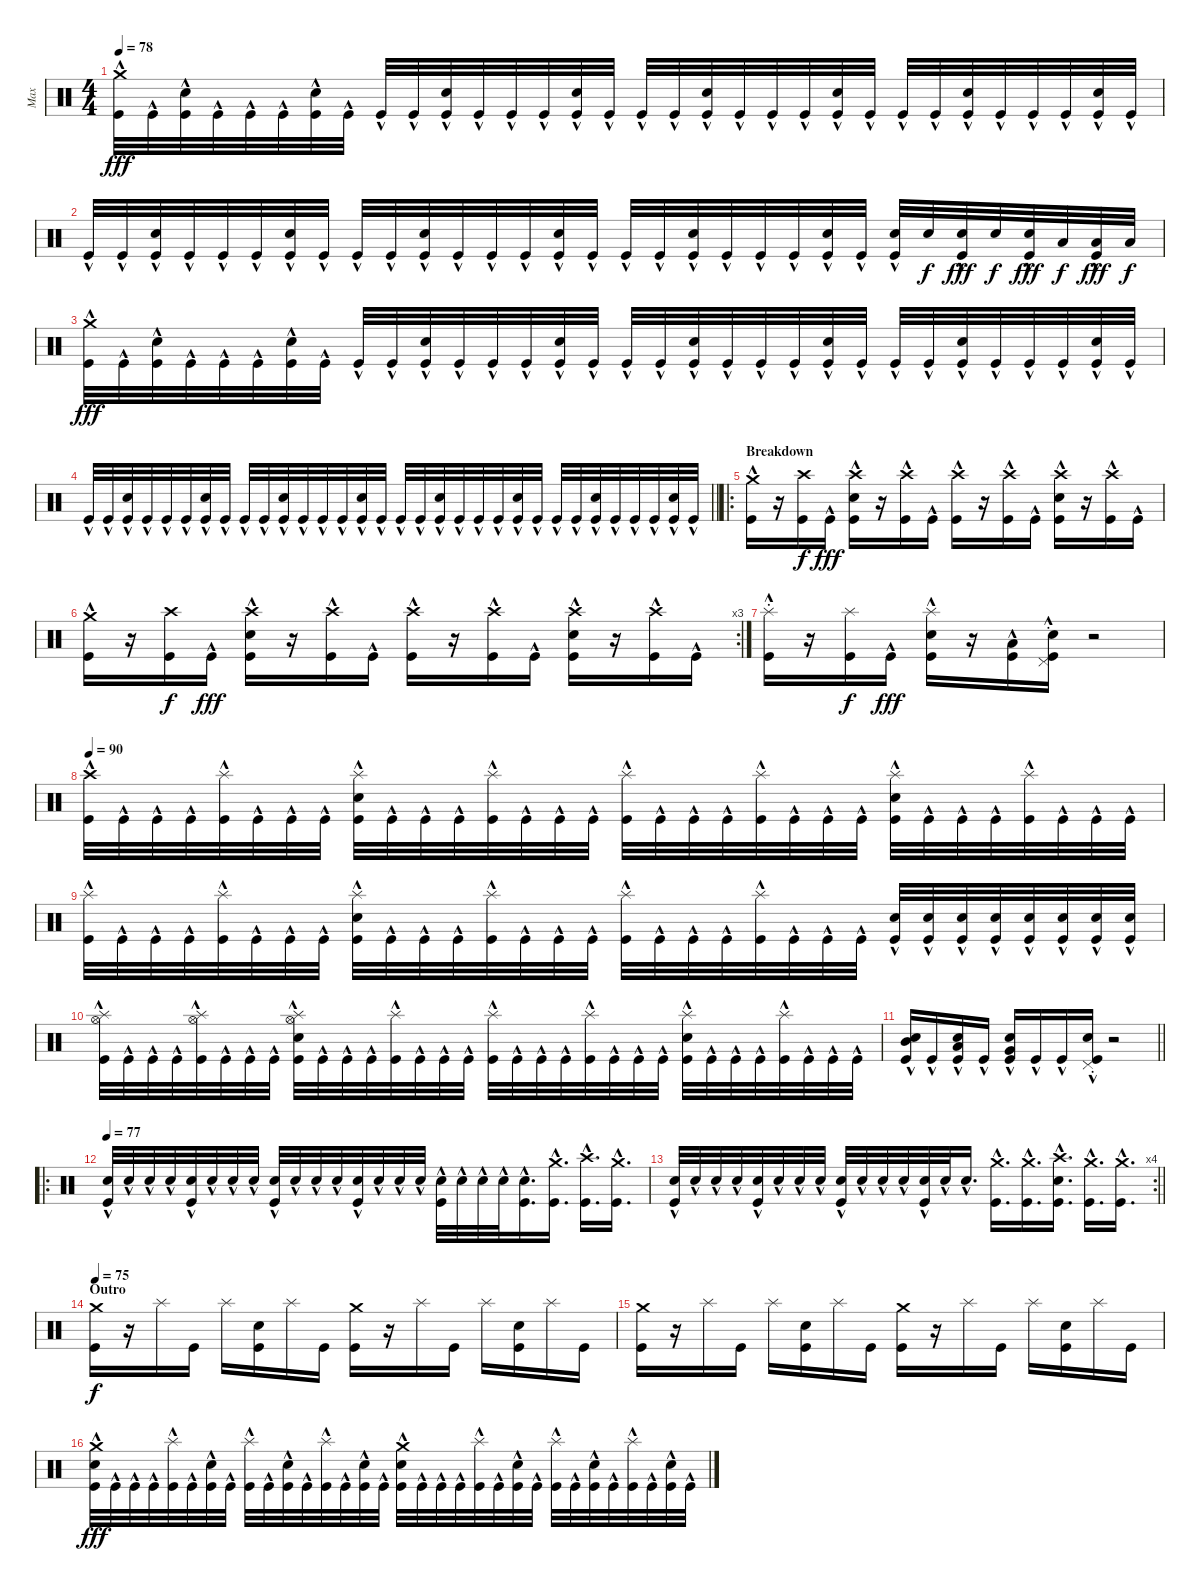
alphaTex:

\track ("Max" "Max") {instrument percussion}
\staff {score}
\articulation defaults
\ts (4 4)
\tempo 78
\clef neutral
\ks c
("Crash medium (hit)" "Kick (hit)"{hac}).32{dy fff} "Kick (hit)"{hac}.32 ("Electric Snare (hit)" "Kick (hit)"{hac}).32 "Kick (hit)"{hac}.32 "Kick (hit)"{hac}.32 "Kick (hit)"{hac}.32 ("Electric Snare (hit)" "Kick (hit)"{hac}).32 "Kick (hit)"{hac}.32 "Kick (hit)"{hac}.32 "Kick (hit)"{hac}.32 ("Electric Snare (hit)" "Kick (hit)"{hac}).32 "Kick (hit)"{hac}.32 "Kick (hit)"{hac}.32 "Kick (hit)"{hac}.32 ("Electric Snare (hit)" "Kick (hit)"{hac}).32 "Kick (hit)"{hac}.32 "Kick (hit)"{hac}.32 "Kick (hit)"{hac}.32 ("Electric Snare (hit)" "Kick (hit)"{hac}).32 "Kick (hit)"{hac}.32 "Kick (hit)"{hac}.32 "Kick (hit)"{hac}.32 ("Electric Snare (hit)" "Kick (hit)"{hac}).32 "Kick (hit)"{hac}.32 "Kick (hit)"{hac}.32 "Kick (hit)"{hac}.32 ("Electric Snare (hit)" "Kick (hit)"{hac}).32 "Kick (hit)"{hac}.32 "Kick (hit)"{hac}.32 "Kick (hit)"{hac}.32 ("Electric Snare (hit)" "Kick (hit)"{hac}).32 "Kick (hit)"{hac}.32 |
"Kick (hit)"{hac}.32 "Kick (hit)"{hac}.32 ("Electric Snare (hit)" "Kick (hit)"{hac}).32 "Kick (hit)"{hac}.32 "Kick (hit)"{hac}.32 "Kick (hit)"{hac}.32 ("Electric Snare (hit)" "Kick (hit)"{hac}).32 "Kick (hit)"{hac}.32 "Kick (hit)"{hac}.32 "Kick (hit)"{hac}.32 ("Electric Snare (hit)" "Kick (hit)"{hac}).32 "Kick (hit)"{hac}.32 "Kick (hit)"{hac}.32 "Kick (hit)"{hac}.32 ("Electric Snare (hit)" "Kick (hit)"{hac}).32 "Kick (hit)"{hac}.32 "Kick (hit)"{hac}.32 "Kick (hit)"{hac}.32 ("Electric Snare (hit)" "Kick (hit)"{hac}).32 "Kick (hit)"{hac}.32 "Kick (hit)"{hac}.32 "Kick (hit)"{hac}.32 ("Electric Snare (hit)" "Kick (hit)"{hac}).32 "Kick (hit)"{hac}.32 ("Electric Snare (hit)" "Kick (hit)"{hac}).32 "Electric Snare (hit)".32{dy f} ("Electric Snare (hit)" "Kick (hit)"{hac}).32{dy fff} "Electric Snare (hit)".32{dy f} ("Electric Snare (hit)" "Kick (hit)"{hac}).32{dy fff} "Low Tom (hit)".32{dy f} ("Low Tom (hit)" "Kick (hit)"{hac}).32{dy fff} "Low Tom (hit)".32{dy f} |
("Crash medium (hit)" "Kick (hit)"{hac}).32{dy fff} "Kick (hit)"{hac}.32 ("Electric Snare (hit)" "Kick (hit)"{hac}).32 "Kick (hit)"{hac}.32 "Kick (hit)"{hac}.32 "Kick (hit)"{hac}.32 ("Electric Snare (hit)" "Kick (hit)"{hac}).32 "Kick (hit)"{hac}.32 "Kick (hit)"{hac}.32 "Kick (hit)"{hac}.32 ("Electric Snare (hit)" "Kick (hit)"{hac}).32 "Kick (hit)"{hac}.32 "Kick (hit)"{hac}.32 "Kick (hit)"{hac}.32 ("Electric Snare (hit)" "Kick (hit)"{hac}).32 "Kick (hit)"{hac}.32 "Kick (hit)"{hac}.32 "Kick (hit)"{hac}.32 ("Electric Snare (hit)" "Kick (hit)"{hac}).32 "Kick (hit)"{hac}.32 "Kick (hit)"{hac}.32 "Kick (hit)"{hac}.32 ("Electric Snare (hit)" "Kick (hit)"{hac}).32 "Kick (hit)"{hac}.32 "Kick (hit)"{hac}.32 "Kick (hit)"{hac}.32 ("Electric Snare (hit)" "Kick (hit)"{hac}).32 "Kick (hit)"{hac}.32 "Kick (hit)"{hac}.32 "Kick (hit)"{hac}.32 ("Electric Snare (hit)" "Kick (hit)"{hac}).32 "Kick (hit)"{hac}.32 |
\barLineRight lightlight "Kick (hit)"{hac}.32 "Kick (hit)"{hac}.32
("Electric Snare (hit)" "Kick (hit)"{hac}).32 "Kick (hit)"{hac}.32 "Kick (hit)"{hac}.32 "Kick (hit)"{hac}.32 ("Electric Snare (hit)" "Kick (hit)"{hac}).32 "Kick (hit)"{hac}.32 "Kick (hit)"{hac}.32 "Kick (hit)"{hac}.32 ("Electric Snare (hit)" "Kick (hit)"{hac}).32 "Kick (hit)"{hac}.32 "Kick (hit)"{hac}.32 "Kick (hit)"{hac}.32 ("Electric Snare (hit)" "Kick (hit)"{hac}).32 "Kick (hit)"{hac}.32 "Kick (hit)"{hac}.32 "Kick (hit)"{hac}.32 ("Electric Snare (hit)" "Kick (hit)"{hac}).32 "Kick (hit)"{hac}.32 "Kick (hit)"{hac}.32 "Kick (hit)"{hac}.32 ("Electric Snare (hit)" "Kick (hit)"{hac}).32 "Kick (hit)"{hac}.32 "Kick (hit)"{hac}.32 "Kick (hit)"{hac}.32 ("Electric Snare (hit)" "Kick (hit)"{hac}).32 "Kick (hit)"{hac}.32 "Kick (hit)"{hac}.32 "Kick (hit)"{hac}.32 ("Electric Snare (hit)" "Kick (hit)"{hac}).32 "Kick (hit)"{hac}.32 |
\ro
\section ("" "Breakdown")
("Crash medium (hit)" "Kick (hit)"{hac}).16 r.16 ("Crash high (hit)" "Kick (hit)").16{dy f} "Kick (hit)"{hac}.16{dy fff} ("Crash high (hit)" "Electric Snare (hit)" "Kick (hit)"{hac}).16 r.16 ("Crash high (hit)" "Kick (hit)"{hac}).16 "Kick (hit)"{hac}.16 ("Crash high (hit)" "Kick (hit)"{hac}).16 r.16 ("Crash high (hit)" "Kick (hit)"{hac}).16 "Kick (hit)"{hac}.16 ("Crash high (hit)" "Electric Snare (hit)" "Kick (hit)"{hac}).16 r.16 ("Crash high (hit)" "Kick (hit)"{hac}).16 "Kick (hit)"{hac}.16 |
\rc 3
("Crash medium (hit)" "Kick (hit)"{hac}).16 r.16 ("Crash high (hit)" "Kick (hit)").16{dy f} "Kick (hit)"{hac}.16{dy fff} ("Crash high (hit)" "Electric Snare (hit)" "Kick (hit)"{hac}).16 r.16 ("Crash high (hit)" "Kick (hit)"{hac}).16 "Kick (hit)"{hac}.16 ("Crash high (hit)" "Kick (hit)"{hac}).16 r.16 ("Crash high (hit)" "Kick (hit)"{hac}).16 "Kick (hit)"{hac}.16 ("Crash high (hit)" "Electric Snare (hit)" "Kick (hit)"{hac}).16 r.16 ("Crash high (hit)" "Kick (hit)"{hac}).16 "Kick (hit)"{hac}.16 |
("Splash (hit)"{st} "Kick (hit)"{hac}).16 r.16 ("Splash (hit)" "Kick (hit)").16{dy f} "Kick (hit)"{hac}.16{dy fff} ("Splash (hit)" "Electric Snare (hit)" "Kick (hit)"{hac}).16 r.16 ("Low Tom (hit)" "Kick (hit)"{hac}).16 ("Pedal Hi-Hat (hit)"{hac st} "Electric Snare (hit)"{hac} "Kick (hit)"{hac}).16 r.2 |
\tempo 90
("Crash high (hit)" "Kick (hit)"{hac}).32 "Kick (hit)"{hac}.32 "Kick (hit)"{hac}.32 "Kick (hit)"{hac}.32 ("Splash (hit)" "Kick (hit)"{hac}).32 "Kick (hit)"{hac}.32 "Kick (hit)"{hac}.32 "Kick (hit)"{hac}.32 ("Splash (hit)" "Electric Snare (hit)" "Kick (hit)"{hac}).32 "Kick (hit)"{hac}.32 "Kick (hit)"{hac}.32 "Kick (hit)"{hac}.32 ("Splash (hit)" "Kick (hit)"{hac}).32 "Kick (hit)"{hac}.32 "Kick (hit)"{hac}.32 "Kick (hit)"{hac}.32 ("Splash (hit)" "Kick (hit)"{hac}).32 "Kick (hit)"{hac}.32 "Kick (hit)"{hac}.32 "Kick (hit)"{hac}.32 ("Splash (hit)" "Kick (hit)"{hac}).32 "Kick (hit)"{hac}.32 "Kick (hit)"{hac}.32 "Kick (hit)"{hac}.32 ("Splash (hit)" "Electric Snare (hit)" "Kick (hit)"{hac}).32 "Kick (hit)"{hac}.32 "Kick (hit)"{hac}.32 "Kick (hit)"{hac}.32 ("Splash (hit)" "Kick (hit)"{hac}).32 "Kick (hit)"{hac}.32 "Kick (hit)"{hac}.32 "Kick (hit)"{hac}.32 |
("Splash (hit)" "Kick (hit)"{hac}).32 "Kick (hit)"{hac}.32 "Kick (hit)"{hac}.32 "Kick (hit)"{hac}.32 ("Splash (hit)" "Kick (hit)"{hac}).32 "Kick (hit)"{hac}.32 "Kick (hit)"{hac}.32 "Kick (hit)"{hac}.32 ("Splash (hit)" "Electric Snare (hit)" "Kick (hit)"{hac}).32 "Kick (hit)"{hac}.32 "Kick (hit)"{hac}.32 "Kick (hit)"{hac}.32 ("Splash (hit)" "Kick (hit)"{hac}).32 "Kick (hit)"{hac}.32 "Kick (hit)"{hac}.32 "Kick (hit)"{hac}.32 ("Splash (hit)" "Kick (hit)"{hac}).32 "Kick (hit)"{hac}.32 "Kick (hit)"{hac}.32 "Kick (hit)"{hac}.32 ("Splash (hit)" "Kick (hit)"{hac}).32 "Kick (hit)"{hac}.32 "Kick (hit)"{hac}.32 "Kick (hit)"{hac}.32 ("Electric Snare (hit)" "Kick (hit)"{hac}).32 ("Electric Snare (hit)" "Kick (hit)"{hac}).32 ("Electric Snare (hit)" "Kick (hit)"{hac}).32 ("Electric Snare (hit)" "Kick (hit)"{hac}).32 ("Electric Snare (hit)" "Kick (hit)"{hac}).32 ("Electric Snare (hit)" "Kick (hit)"{hac}).32 ("Electric Snare (hit)" "Kick (hit)"{hac}).32 ("Electric Snare (hit)" "Kick (hit)"{hac}).32 |
("Hi-Hat (open)" "Splash (hit)"{hac} "Kick (hit)"{hac}).32 "Kick (hit)"{hac}.32 "Kick (hit)"{hac}.32 "Kick (hit)"{hac}.32 ("Hi-Hat (open)" "Splash (hit)"{hac} "Kick (hit)"{hac}).32 "Kick (hit)"{hac}.32 "Kick (hit)"{hac}.32 "Kick (hit)"{hac}.32 ("Hi-Hat (open)" "Splash (hit)"{hac} "Electric Snare (hit)" "Kick (hit)"{hac}).32 "Kick (hit)"{hac}.32 "Kick (hit)"{hac}.32 "Kick (hit)"{hac}.32 ("Splash (hit)" "Kick (hit)"{hac}).32 "Kick (hit)"{hac}.32 "Kick (hit)"{hac}.32 "Kick (hit)"{hac}.32 ("Splash (hit)" "Kick (hit)"{hac}).32 "Kick (hit)"{hac}.32 "Kick (hit)"{hac}.32 "Kick (hit)"{hac}.32 ("Splash (hit)" "Kick (hit)"{hac}).32 "Kick (hit)"{hac}.32 "Kick (hit)"{hac}.32 "Kick (hit)"{hac}.32 ("Splash (hit)" "Electric Snare (hit)" "Kick (hit)"{hac}).32 "Kick (hit)"{hac}.32 "Kick (hit)"{hac}.32 "Kick (hit)"{hac}.32 ("Splash (hit)" "Kick (hit)"{hac}).32 "Kick (hit)"{hac}.32 "Kick (hit)"{hac}.32 "Kick (hit)"{hac}.32 |
\barLineRight lightlight
("Electric Snare (hit)" "Mid Tom (hit)" "Kick (hit)"{hac}).16 "Kick (hit)"{hac}.16 ("Electric Snare (hit)" "Low Tom (hit)" "Kick (hit)"{hac}).16 "Kick (hit)"{hac}.16 ("Electric Snare (hit)" "Very Low Tom (hit)" "Kick (hit)"{hac}).16 "Kick (hit)"{hac}.16 "Kick (hit)"{hac}.16 ("Pedal Hi-Hat (hit)"{hac st} "Electric Snare (hit)" "Kick (hit)"{hac}).16 r.2 |
\ro
\tempo 77
("Electric Snare (hit)"{hac} "Kick (hit)"{hac}).32 "Electric Snare (hit)"{hac}.32 "Electric Snare (hit)"{hac}.32 "Electric Snare (hit)"{hac}.32 ("Electric Snare (hit)"{hac} "Kick (hit)"{hac}).32 "Electric Snare (hit)"{hac}.32 "Electric Snare (hit)"{hac}.32 "Electric Snare (hit)"{hac}.32 ("Electric Snare (hit)"{hac} "Kick (hit)"{hac}).32 "Electric Snare (hit)"{hac}.32 "Electric Snare (hit)"{hac}.32 "Electric Snare (hit)"{hac}.32 ("Electric Snare (hit)"{hac} "Kick (hit)"{hac}).32 "Electric Snare (hit)"{hac}.32 "Electric Snare (hit)"{hac}.32 "Electric Snare (hit)"{hac}.32 ("Electric Snare (hit)"{hac} "Kick (hit)"{hac}).32 "Electric Snare (hit)"{hac}.32 "Electric Snare (hit)"{hac}.32 "Electric Snare (hit)"{hac}.32 ("Electric Snare (hit)"{hac} "Kick (hit)"{hac}).16{d} ("Crash medium (hit)" "Kick (hit)"{hac}).16{d} ("Crash high (hit)" "Kick (hit)"{hac}).16{d} ("Crash medium (hit)" "Kick (hit)"{hac}).16{d} |
\rc 4
\barLineRight lightlight
("Electric Snare (hit)"{hac} "Kick (hit)"{hac}).32 "Electric Snare (hit)"{hac}.32 "Electric Snare (hit)"{hac}.32 "Electric Snare (hit)"{hac}.32 ("Electric Snare (hit)"{hac} "Kick (hit)"{hac}).32 "Electric Snare (hit)"{hac}.32 "Electric Snare (hit)"{hac}.32 "Electric Snare (hit)"{hac}.32 ("Electric Snare (hit)"{hac} "Kick (hit)"{hac}).32 "Electric Snare (hit)"{hac}.32 "Electric Snare (hit)"{hac}.32 "Electric Snare (hit)"{hac}.32 ("Electric Snare (hit)"{hac} "Kick (hit)"{hac}).32 "Electric Snare (hit)"{hac}.32 "Electric Snare (hit)"{hac}.16{d} ("Crash medium (hit)" "Kick (hit)"{hac}).16{d} ("Crash medium (hit)" "Kick (hit)"{hac}).16{d} ("Crash high (hit)" "Electric Snare (hit)" "Kick (hit)"{hac}).16{d} ("Crash medium (hit)" "Kick (hit)"{hac}).16{d} ("Crash medium (hit)" "Kick (hit)"{hac}).16{d} |
\section ("" "Outro")
\tempo 75
("Crash medium (hit)" "Kick (hit)").16{dy f} r.16 "Splash (hit)".16 "Kick (hit)".16 "Splash (hit)".16 ("Electric Snare (hit)" "Kick (hit)").16 "Splash (hit)".16 "Kick (hit)".16 ("Crash medium (hit)" "Kick (hit)").16 r.16 "Splash (hit)".16 "Kick (hit)".16 "Splash (hit)".16 ("Electric Snare (hit)" "Kick (hit)").16 "Splash (hit)".16 "Kick (hit)".16 |
("Crash medium (hit)" "Kick (hit)").16 r.16 "Splash (hit)".16 "Kick (hit)".16 "Splash (hit)".16 ("Electric Snare (hit)" "Kick (hit)").16 "Splash (hit)".16 "Kick (hit)".16 ("Crash medium (hit)" "Kick (hit)").16 r.16 "Splash (hit)".16 "Kick (hit)".16 "Splash (hit)".16 ("Electric Snare (hit)" "Kick (hit)").16 "Splash (hit)".16 "Kick (hit)".16 |
("Crash medium (hit)" "Electric Snare (hit)" "Kick (hit)"{hac}).32{dy fff} "Kick (hit)"{hac}.32 "Kick (hit)"{hac}.32 "Kick (hit)"{hac}.32 ("Splash (hit)" "Kick (hit)"{hac}).32 "Kick (hit)"{hac}.32 ("Electric Snare (hit)" "Kick (hit)"{hac}).32 "Kick (hit)"{hac}.32 ("Splash (hit)" "Kick (hit)"{hac}).32 "Kick (hit)"{hac}.32 ("Electric Snare (hit)" "Kick (hit)"{hac}).32 "Kick (hit)"{hac}.32 ("Splash (hit)" "Kick (hit)"{hac}).32 "Kick (hit)"{hac}.32 ("Electric Snare (hit)" "Kick (hit)"{hac}).32 "Kick (hit)"{hac}.32 ("Crash medium (hit)" "Electric Snare (hit)" "Kick (hit)"{hac}).32 "Kick (hit)"{hac}.32 "Kick (hit)"{hac}.32 "Kick (hit)"{hac}.32 ("Splash (hit)" "Kick (hit)"{hac}).32 "Kick (hit)"{hac}.32 ("Electric Snare (hit)" "Kick (hit)"{hac}).32 "Kick (hit)"{hac}.32 ("Splash (hit)" "Kick (hit)"{hac}).32 "Kick (hit)"{hac}.32 ("Electric Snare (hit)" "Kick (hit)"{hac}).32 "Kick (hit)"{hac}.32 ("Splash (hit)" "Kick (hit)"{hac}).32 "Kick (hit)"{hac}.32 ("Electric Snare (hit)" "Kick (hit)"{hac}).32 "Kick (hit)"{hac}.32
